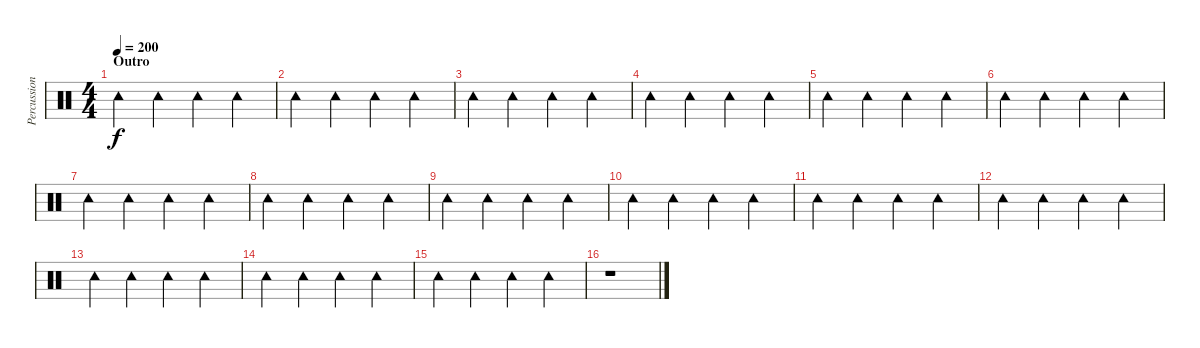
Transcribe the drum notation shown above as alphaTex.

\track ("Percussion" "Percussion") {instrument percussion}
\staff {score}
\articulation defaults
\ts (4 4)
\section ("" "Outro")
\tempo 200
\clef neutral
\ks c "Tambourine (hit)".4{dy f} "Tambourine (hit)".4 "Tambourine (hit)".4 "Tambourine (hit)".4
|
"Tambourine (hit)".4 "Tambourine (hit)".4 "Tambourine (hit)".4 "Tambourine (hit)".4 |
"Tambourine (hit)".4 "Tambourine (hit)".4 "Tambourine (hit)".4 "Tambourine (hit)".4 |
"Tambourine (hit)".4 "Tambourine (hit)".4 "Tambourine (hit)".4 "Tambourine (hit)".4 |
"Tambourine (hit)".4 "Tambourine (hit)".4 "Tambourine (hit)".4 "Tambourine (hit)".4 |
"Tambourine (hit)".4 "Tambourine (hit)".4 "Tambourine (hit)".4 "Tambourine (hit)".4 |
"Tambourine (hit)".4 "Tambourine (hit)".4 "Tambourine (hit)".4 "Tambourine (hit)".4 |
"Tambourine (hit)".4 "Tambourine (hit)".4 "Tambourine (hit)".4 "Tambourine (hit)".4 |
"Tambourine (hit)".4 "Tambourine (hit)".4 "Tambourine (hit)".4 "Tambourine (hit)".4 |
"Tambourine (hit)".4 "Tambourine (hit)".4 "Tambourine (hit)".4 "Tambourine (hit)".4 |
"Tambourine (hit)".4 "Tambourine (hit)".4 "Tambourine (hit)".4 "Tambourine (hit)".4 |
"Tambourine (hit)".4 "Tambourine (hit)".4 "Tambourine (hit)".4 "Tambourine (hit)".4 |
"Tambourine (hit)".4 "Tambourine (hit)".4 "Tambourine (hit)".4 "Tambourine (hit)".4 |
"Tambourine (hit)".4 "Tambourine (hit)".4 "Tambourine (hit)".4 "Tambourine (hit)".4 |
"Tambourine (hit)".4 "Tambourine (hit)".4 "Tambourine (hit)".4 "Tambourine (hit)".4 |
r.1
